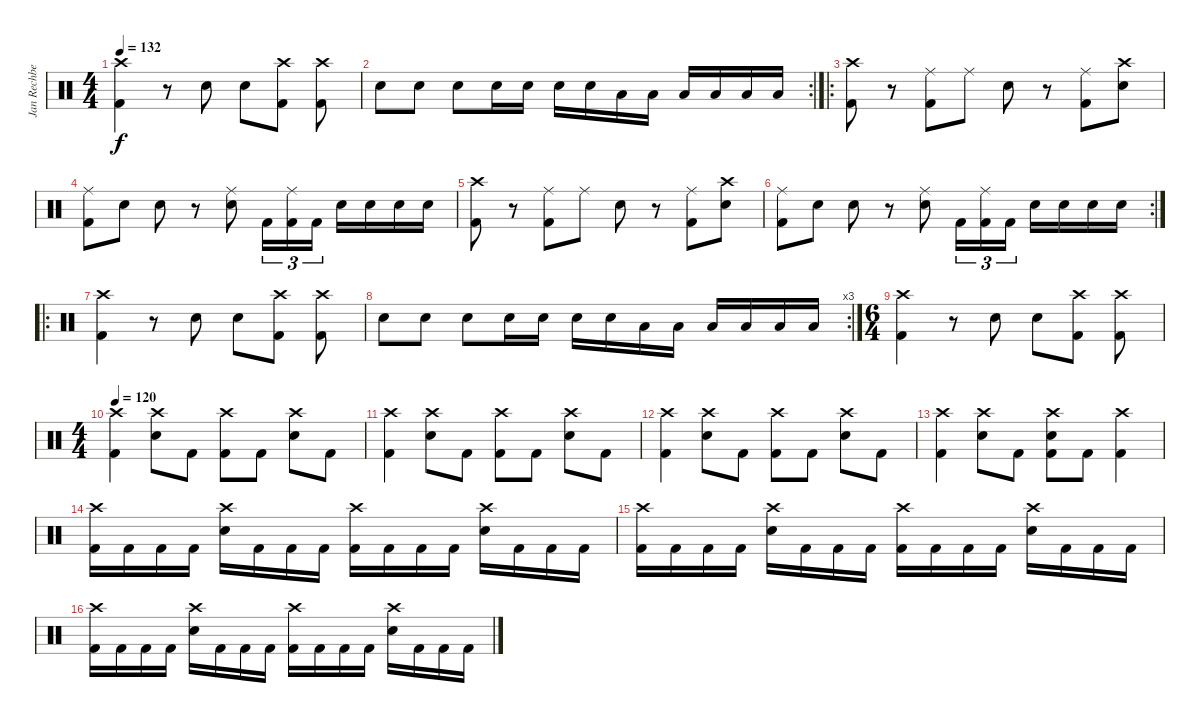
\track ("Jan Rechberger" "Jan Rechbe") {instrument percussion}
\staff {score}
\articulation defaults
\ts (4 4)
\tempo 132
\clef neutral
\ks c
("Crash high (hit)" "Kick (hit) 2").4{dy f} r.8 "Electric Snare (hit)".8 "Electric Snare (hit)".8 ("Crash high (hit)" "Kick (hit) 2").8 ("Crash high (hit)" "Kick (hit) 2").8 |
\rc 2 "Electric Snare (hit)".8 "Electric Snare (hit)".8 "Electric Snare (hit)".8 "Electric Snare (hit)".16 "Electric Snare (hit)".16 "Electric Snare (hit)".16 "Electric Snare (hit)".16 "Low Floor Tom (hit)".16 "Low Floor Tom (hit)".16 "Low Floor Tom (hit)".16 "Low Floor Tom (hit)".16 "Low Floor Tom (hit)".16 "Low Floor Tom (hit)".16
|
\ro
("Crash high (hit)" "Kick (hit) 2").8 r.8 ("Ride (middle)" "Kick (hit) 2").8 "Ride (middle)".8 "Electric Snare (hit)".8 r.8 ("Ride (middle)" "Kick (hit) 2").8 ("Crash high (hit)" "Electric Snare (hit)").8 |
("Ride (middle)" "Kick (hit) 2").8 "Electric Snare (hit)".8 "Electric Snare (hit)".8 r.8 ("Ride (middle)" "Electric Snare (hit)").8 "Kick (hit) 2".16{tu (3 2)} ("Ride (middle)" "Kick (hit) 2").16{tu (3 2)} "Kick (hit) 2".16{tu (3 2)} "Electric Snare (hit)".16 "Electric Snare (hit)".16 "Electric Snare (hit)".16 "Electric Snare (hit)".16 |
("Crash high (hit)" "Kick (hit) 2").8 r.8 ("Ride (middle)" "Kick (hit) 2").8 "Ride (middle)".8 "Electric Snare (hit)".8 r.8 ("Ride (middle)" "Kick (hit) 2").8 ("Crash high (hit)" "Electric Snare (hit)").8 |
\rc 2
("Ride (middle)" "Kick (hit) 2").8 "Electric Snare (hit)".8 "Electric Snare (hit)".8 r.8 ("Ride (middle)" "Electric Snare (hit)").8 "Kick (hit) 2".16{tu (3 2)} ("Ride (middle)" "Kick (hit) 2").16{tu (3 2)} "Kick (hit) 2".16{tu (3 2)} "Electric Snare (hit)".16 "Electric Snare (hit)".16 "Electric Snare (hit)".16 "Electric Snare (hit)".16 |
\ro
("Crash high (hit)" "Kick (hit) 2").4 r.8 "Electric Snare (hit)".8 "Electric Snare (hit)".8 ("Crash high (hit)" "Kick (hit) 2").8 ("Crash high (hit)" "Kick (hit) 2").8 |
\rc 3 "Electric Snare (hit)".8 "Electric Snare (hit)".8 "Electric Snare (hit)".8 "Electric Snare (hit)".16 "Electric Snare (hit)".16 "Electric Snare (hit)".16 "Electric Snare (hit)".16 "Low Floor Tom (hit)".16 "Low Floor Tom (hit)".16 "Low Floor Tom (hit)".16 "Low Floor Tom (hit)".16 "Low Floor Tom (hit)".16 "Low Floor Tom (hit)".16
|
\ts (6 4)
("Crash high (hit)" "Kick (hit) 2").4 r.8 "Electric Snare (hit)".8 "Electric Snare (hit)".8 ("Crash high (hit)" "Kick (hit) 2").8 ("Crash high (hit)" "Kick (hit) 2").8 |
\ts (4 4)
\tempo 120
("Crash high (hit)" "Kick (hit) 2").4 ("Crash high (hit)" "Electric Snare (hit)").8 "Kick (hit) 2".8 ("Crash high (hit)" "Kick (hit) 2").8 "Kick (hit) 2".8 ("Crash high (hit)" "Electric Snare (hit)").8 "Kick (hit) 2".8 |
("Crash high (hit)" "Kick (hit) 2").4 ("Crash high (hit)" "Electric Snare (hit)").8 "Kick (hit) 2".8 ("Crash high (hit)" "Kick (hit) 2").8 "Kick (hit) 2".8 ("Crash high (hit)" "Electric Snare (hit)").8 "Kick (hit) 2".8 |
("Crash high (hit)" "Kick (hit) 2").4 ("Crash high (hit)" "Electric Snare (hit)").8 "Kick (hit) 2".8 ("Crash high (hit)" "Kick (hit) 2").8 "Kick (hit) 2".8 ("Crash high (hit)" "Electric Snare (hit)").8 "Kick (hit) 2".8 |
("Crash high (hit)" "Kick (hit) 2").4 ("Crash high (hit)" "Electric Snare (hit)").8 "Kick (hit) 2".8 ("Crash high (hit)" "Electric Snare (hit)" "Kick (hit) 2").8 "Kick (hit) 2".8 ("Crash high (hit)" "Kick (hit) 2").4 |
("Kick (hit) 2" "Crash high (hit)").16 "Kick (hit) 2".16 "Kick (hit) 2".16 "Kick (hit) 2".16 ("Electric Snare (hit)" "Crash high (hit)").16 "Kick (hit) 2".16 "Kick (hit) 2".16 "Kick (hit) 2".16 ("Kick (hit) 2" "Crash high (hit)").16 "Kick (hit) 2".16 "Kick (hit) 2".16 "Kick (hit) 2".16 ("Electric Snare (hit)" "Crash high (hit)").16 "Kick (hit) 2".16 "Kick (hit) 2".16 "Kick (hit) 2".16 |
("Kick (hit) 2" "Crash high (hit)").16 "Kick (hit) 2".16 "Kick (hit) 2".16 "Kick (hit) 2".16 ("Electric Snare (hit)" "Crash high (hit)").16 "Kick (hit) 2".16 "Kick (hit) 2".16 "Kick (hit) 2".16 ("Kick (hit) 2" "Crash high (hit)").16 "Kick (hit) 2".16 "Kick (hit) 2".16 "Kick (hit) 2".16 ("Electric Snare (hit)" "Crash high (hit)").16 "Kick (hit) 2".16 "Kick (hit) 2".16 "Kick (hit) 2".16 |
("Kick (hit) 2" "Crash high (hit)").16 "Kick (hit) 2".16 "Kick (hit) 2".16 "Kick (hit) 2".16 ("Electric Snare (hit)" "Crash high (hit)").16 "Kick (hit) 2".16 "Kick (hit) 2".16 "Kick (hit) 2".16 ("Kick (hit) 2" "Crash high (hit)").16 "Kick (hit) 2".16 "Kick (hit) 2".16 "Kick (hit) 2".16 ("Electric Snare (hit)" "Crash high (hit)").16 "Kick (hit) 2".16 "Kick (hit) 2".16 "Kick (hit) 2".16
